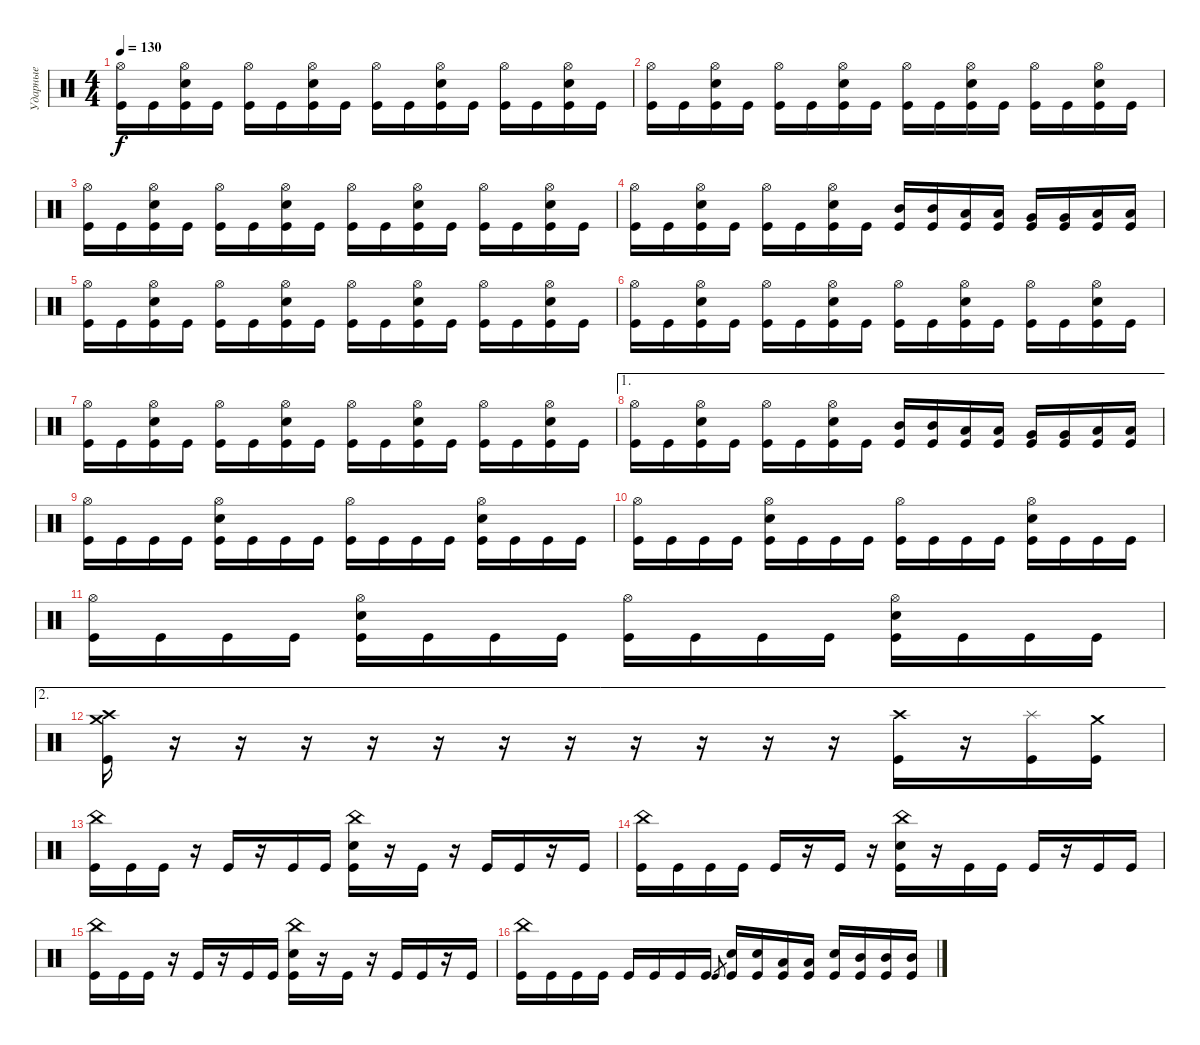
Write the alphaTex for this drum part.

\track ("Ударные" "Ударные") {instrument percussion}
\staff {score}
\articulation defaults
\ts (4 4)
\tempo 130
\clef neutral
\ks c
("Hi-Hat (open)" "Kick (hit)").16{dy f} "Kick (hit)".16 ("Hi-Hat (open)" "Snare (hit) 2" "Kick (hit)").16 "Kick (hit)".16 ("Hi-Hat (open)" "Kick (hit)").16 "Kick (hit)".16 ("Hi-Hat (open)" "Snare (hit) 2" "Kick (hit)").16 "Kick (hit)".16 ("Hi-Hat (open)" "Kick (hit)").16 "Kick (hit)".16 ("Hi-Hat (open)" "Snare (hit) 2" "Kick (hit)").16 "Kick (hit)".16 ("Hi-Hat (open)" "Kick (hit)").16 "Kick (hit)".16 ("Hi-Hat (open)" "Snare (hit) 2" "Kick (hit)").16 "Kick (hit)".16 |
("Hi-Hat (open)" "Kick (hit)").16 "Kick (hit)".16 ("Hi-Hat (open)" "Snare (hit) 2" "Kick (hit)").16 "Kick (hit)".16 ("Hi-Hat (open)" "Kick (hit)").16 "Kick (hit)".16 ("Hi-Hat (open)" "Snare (hit) 2" "Kick (hit)").16 "Kick (hit)".16 ("Hi-Hat (open)" "Kick (hit)").16 "Kick (hit)".16 ("Hi-Hat (open)" "Snare (hit) 2" "Kick (hit)").16 "Kick (hit)".16 ("Hi-Hat (open)" "Kick (hit)").16 "Kick (hit)".16 ("Hi-Hat (open)" "Snare (hit) 2" "Kick (hit)").16 "Kick (hit)".16 |
("Hi-Hat (open)" "Kick (hit)").16 "Kick (hit)".16 ("Hi-Hat (open)" "Snare (hit) 2" "Kick (hit)").16 "Kick (hit)".16 ("Hi-Hat (open)" "Kick (hit)").16 "Kick (hit)".16 ("Hi-Hat (open)" "Snare (hit) 2" "Kick (hit)").16 "Kick (hit)".16 ("Hi-Hat (open)" "Kick (hit)").16 "Kick (hit)".16 ("Hi-Hat (open)" "Snare (hit) 2" "Kick (hit)").16 "Kick (hit)".16 ("Hi-Hat (open)" "Kick (hit)").16 "Kick (hit)".16 ("Hi-Hat (open)" "Snare (hit) 2" "Kick (hit)").16 "Kick (hit)".16 |
("Hi-Hat (open)" "Kick (hit)").16 "Kick (hit)".16 ("Hi-Hat (open)" "Snare (hit) 2" "Kick (hit)").16 "Kick (hit)".16 ("Hi-Hat (open)" "Kick (hit)").16 "Kick (hit)".16 ("Hi-Hat (open)" "Snare (hit) 2" "Kick (hit)").16 "Kick (hit)".16 ("Mid Tom (hit)" "Kick (hit)").16 ("Mid Tom (hit)" "Kick (hit)").16 ("Low Tom (hit)" "Kick (hit)").16 ("Low Tom (hit)" "Kick (hit)").16 ("Very Low Tom (hit)" "Kick (hit)").16 ("Very Low Tom (hit)" "Kick (hit)").16 ("Low Tom (hit)" "Kick (hit)").16 ("Low Tom (hit)" "Kick (hit)").16 |
("Hi-Hat (open)" "Kick (hit)").16 "Kick (hit)".16 ("Hi-Hat (open)" "Snare (hit) 2" "Kick (hit)").16 "Kick (hit)".16 ("Hi-Hat (open)" "Kick (hit)").16 "Kick (hit)".16 ("Hi-Hat (open)" "Snare (hit) 2" "Kick (hit)").16 "Kick (hit)".16 ("Hi-Hat (open)" "Kick (hit)").16 "Kick (hit)".16 ("Hi-Hat (open)" "Snare (hit) 2" "Kick (hit)").16 "Kick (hit)".16 ("Hi-Hat (open)" "Kick (hit)").16 "Kick (hit)".16 ("Hi-Hat (open)" "Snare (hit) 2" "Kick (hit)").16 "Kick (hit)".16 |
("Hi-Hat (open)" "Kick (hit)").16 "Kick (hit)".16 ("Hi-Hat (open)" "Snare (hit) 2" "Kick (hit)").16 "Kick (hit)".16 ("Hi-Hat (open)" "Kick (hit)").16 "Kick (hit)".16 ("Hi-Hat (open)" "Snare (hit) 2" "Kick (hit)").16 "Kick (hit)".16 ("Hi-Hat (open)" "Kick (hit)").16 "Kick (hit)".16 ("Hi-Hat (open)" "Snare (hit) 2" "Kick (hit)").16 "Kick (hit)".16 ("Hi-Hat (open)" "Kick (hit)").16 "Kick (hit)".16 ("Hi-Hat (open)" "Snare (hit) 2" "Kick (hit)").16 "Kick (hit)".16 |
("Hi-Hat (open)" "Kick (hit)").16 "Kick (hit)".16 ("Hi-Hat (open)" "Snare (hit) 2" "Kick (hit)").16 "Kick (hit)".16 ("Hi-Hat (open)" "Kick (hit)").16 "Kick (hit)".16 ("Hi-Hat (open)" "Snare (hit) 2" "Kick (hit)").16 "Kick (hit)".16 ("Hi-Hat (open)" "Kick (hit)").16 "Kick (hit)".16 ("Hi-Hat (open)" "Snare (hit) 2" "Kick (hit)").16 "Kick (hit)".16 ("Hi-Hat (open)" "Kick (hit)").16 "Kick (hit)".16 ("Hi-Hat (open)" "Snare (hit) 2" "Kick (hit)").16 "Kick (hit)".16 |
\ae 1
("Hi-Hat (open)" "Kick (hit)").16 "Kick (hit)".16 ("Hi-Hat (open)" "Snare (hit) 2" "Kick (hit)").16 "Kick (hit)".16 ("Hi-Hat (open)" "Kick (hit)").16 "Kick (hit)".16 ("Hi-Hat (open)" "Snare (hit) 2" "Kick (hit)").16 "Kick (hit)".16 ("Mid Tom (hit)" "Kick (hit)").16 ("Mid Tom (hit)" "Kick (hit)").16 ("Low Tom (hit)" "Kick (hit)").16 ("Low Tom (hit)" "Kick (hit)").16 ("Very Low Tom (hit)" "Kick (hit)").16 ("Very Low Tom (hit)" "Kick (hit)").16 ("Low Tom (hit)" "Kick (hit)").16 ("Low Tom (hit)" "Kick (hit)").16 |
("Hi-Hat (open)" "Kick (hit)").16 "Kick (hit)".16 "Kick (hit)".16 "Kick (hit)".16 ("Hi-Hat (open)" "Snare (hit) 2" "Kick (hit)").16 "Kick (hit)".16 "Kick (hit)".16 "Kick (hit)".16 ("Hi-Hat (open)" "Kick (hit)").16 "Kick (hit)".16 "Kick (hit)".16 "Kick (hit)".16 ("Hi-Hat (open)" "Snare (hit) 2" "Kick (hit)").16 "Kick (hit)".16 "Kick (hit)".16 "Kick (hit)".16 |
("Hi-Hat (open)" "Kick (hit)").16 "Kick (hit)".16 "Kick (hit)".16 "Kick (hit)".16 ("Hi-Hat (open)" "Snare (hit) 2" "Kick (hit)").16 "Kick (hit)".16 "Kick (hit)".16 "Kick (hit)".16 ("Hi-Hat (open)" "Kick (hit)").16 "Kick (hit)".16 "Kick (hit)".16 "Kick (hit)".16 ("Hi-Hat (open)" "Snare (hit) 2" "Kick (hit)").16 "Kick (hit)".16 "Kick (hit)".16 "Kick (hit)".16 |
("Hi-Hat (open)" "Kick (hit)").16 "Kick (hit)".16 "Kick (hit)".16 "Kick (hit)".16 ("Hi-Hat (open)" "Snare (hit) 2" "Kick (hit)").16 "Kick (hit)".16 "Kick (hit)".16 "Kick (hit)".16 ("Hi-Hat (open)" "Kick (hit)").16 "Kick (hit)".16 "Kick (hit)".16 "Kick (hit)".16 ("Hi-Hat (open)" "Snare (hit) 2" "Kick (hit)").16 "Kick (hit)".16 "Kick (hit)".16 "Kick (hit)".16 |
\ae 2
("Crash high (hit)" "Crash medium (hit)" "Kick (hit)").16 r.16 r.16 r.16 r.16 r.16 r.16 r.16 r.16 r.16 r.16 r.16 ("Crash high (hit)" "Kick (hit)").16 r.16 ("Splash (hit)" "Kick (hit)").16 ("Crash medium (hit)" "Kick (hit)").16 |
("China (hit)" "Kick (hit)").16 "Kick (hit)".16 "Kick (hit)".16 r.16 "Kick (hit)".16 r.16 "Kick (hit)".16 "Kick (hit)".16 ("China (hit)" "Snare (hit) 2" "Kick (hit)").16 r.16 "Kick (hit)".16 r.16 "Kick (hit)".16 "Kick (hit)".16 r.16 "Kick (hit)".16 |
("China (hit)" "Kick (hit)").16 "Kick (hit)".16 "Kick (hit)".16 "Kick (hit)".16 "Kick (hit)".16 r.16 "Kick (hit)".16 r.16 ("China (hit)" "Snare (hit) 2" "Kick (hit)").16 r.16 "Kick (hit)".16 "Kick (hit)".16 "Kick (hit)".16 r.16 "Kick (hit)".16 "Kick (hit)".16 |
("China (hit)" "Kick (hit)").16 "Kick (hit)".16 "Kick (hit)".16 r.16 "Kick (hit)".16 r.16 "Kick (hit)".16 "Kick (hit)".16 ("China (hit)" "Snare (hit) 2" "Kick (hit)").16 r.16 "Kick (hit)".16 r.16 "Kick (hit)".16 "Kick (hit)".16 r.16 "Kick (hit)".16 |
("China (hit)" "Kick (hit)").16 "Kick (hit)".16 "Kick (hit)".16 "Kick (hit)".16 "Kick (hit)".16 "Kick (hit)".16 "Kick (hit)".16 "Kick (hit)".16 "Kick (hit)".8{gr} ("Snare (hit) 2" "Kick (hit)").16 ("Snare (hit) 2" "Kick (hit)").16 ("Low Tom (hit)" "Kick (hit)").16 ("Low Tom (hit)" "Kick (hit)").16 ("Snare (hit) 2" "Kick (hit)").16 ("Mid Tom (hit)" "Kick (hit)").16 ("Mid Tom (hit)" "Kick (hit)").16 ("Mid Tom (hit)" "Kick (hit)").16
